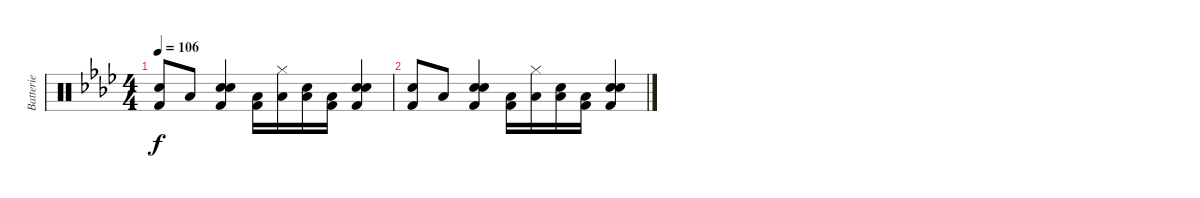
\track ("Batterie" "Batterie") {instrument percussion}
\staff {score}
\articulation defaults
\ts (4 4)
\tempo 106
\clef neutral
\ks ab
("Kick (hit) 2" "Electric Snare (hit)").8{dy f} "Low Floor Tom (hit)".8 ("Snare (hit) 2" "Kick (hit) 2" "Electric Snare (hit)").4 ("Kick (hit) 2" "Low Floor Tom (hit)").16 ("Low Floor Tom (hit)" "Hi-Hat (closed)").16 ("Low Floor Tom (hit)" "Electric Snare (hit)").16 ("Kick (hit) 2" "Low Floor Tom (hit)").16 ("Snare (hit) 2" "Kick (hit) 2" "Electric Snare (hit)").4 |
("Kick (hit) 2" "Electric Snare (hit)").8 "Low Floor Tom (hit)".8 ("Snare (hit) 2" "Kick (hit) 2" "Electric Snare (hit)").4 ("Kick (hit) 2" "Low Floor Tom (hit)").16 ("Low Floor Tom (hit)" "Hi-Hat (closed)").16 ("Low Floor Tom (hit)" "Electric Snare (hit)").16 ("Kick (hit) 2" "Low Floor Tom (hit)").16 ("Snare (hit) 2" "Kick (hit) 2" "Electric Snare (hit)").4
